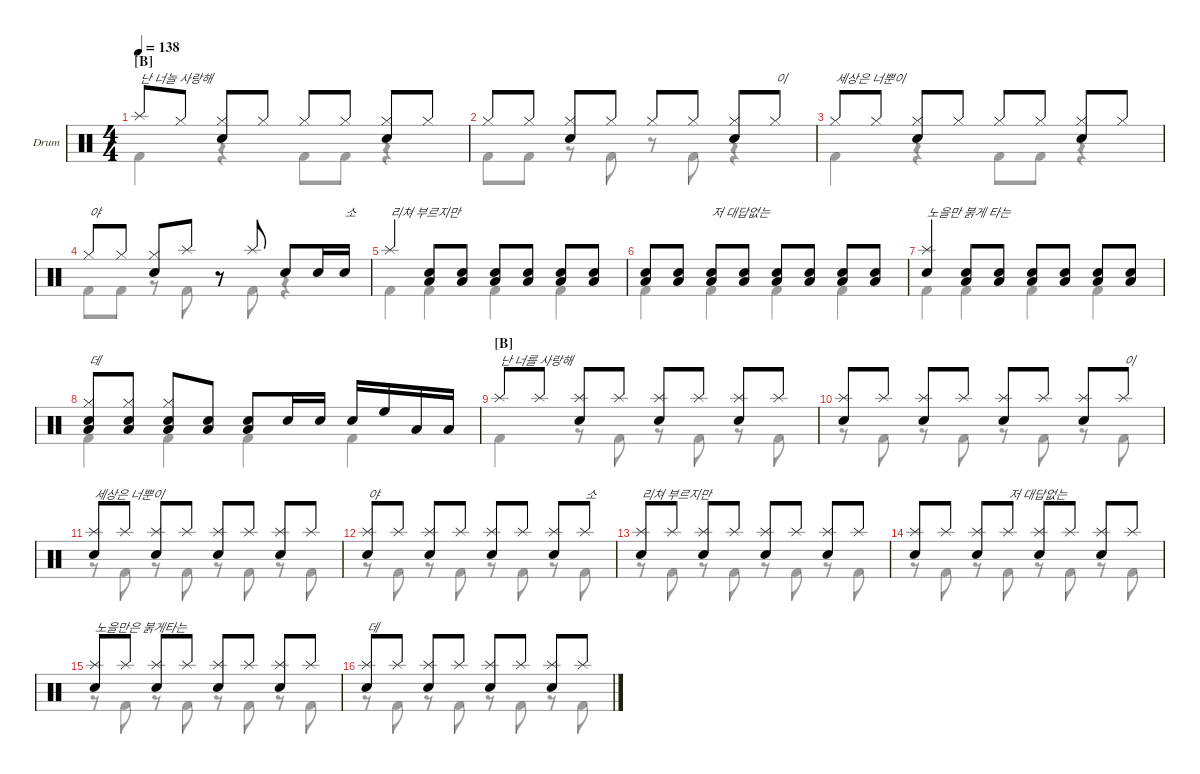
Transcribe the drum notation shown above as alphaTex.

\defaultSystemsLayout 4
\hideDynamics
\bracketExtendMode nobrackets
\firstSystemTrackNameOrientation horizontal
\track ("Drumkit" "Drum") {instrument percussion}
\staff {score}
\articulation defaults
\voice
\ts (4 4)
\section ("B" "")
\tempo 138
\clef neutral
\ks c "Splash (hit)".8{txt "난 너늘 사랑해" dy mf beam Up} "Hi-Hat (closed)".8{beam Up}
("Hi-Hat (closed)" "Snare (hit) 2").8{beam Up} "Hi-Hat (closed)".8{beam Up} "Hi-Hat (closed)".8{beam Up} "Hi-Hat (closed)".8{beam Up} ("Hi-Hat (closed)" "Snare (hit) 2").8{beam Up} "Hi-Hat (closed)".8{beam Up} |
"Hi-Hat (closed)".8{beam Up} "Hi-Hat (closed)".8{beam Up} ("Hi-Hat (closed)" "Snare (hit) 2").8{beam Up} "Hi-Hat (closed)".8{beam Up} "Hi-Hat (closed)".8{beam Up} "Hi-Hat (closed)".8{beam Up} ("Hi-Hat (closed)" "Snare (hit) 2").8{beam Up} "Hi-Hat (closed)".8{txt "이" beam Up} |
"Hi-Hat (closed)".8{txt "세상은 너뿐이" beam Up} "Hi-Hat (closed)".8{beam Up} ("Hi-Hat (closed)" "Snare (hit) 2").8{beam Up} "Hi-Hat (closed)".8{beam Up} "Hi-Hat (closed)".8{beam Up} "Hi-Hat (closed)".8{beam Up} ("Hi-Hat (closed)" "Snare (hit) 2").8{beam Up} "Hi-Hat (closed)".8{beam Up} |
"Hi-Hat (closed)".8{txt "야" beam Up} "Hi-Hat (closed)".8{beam Up} ("Hi-Hat (closed)" "Snare (hit) 2").8{beam Up} "Splash (hit)".8{beam Up} r.8{beam Up} "Splash (hit)".8{beam Up} "Snare (hit) 2".8{beam Up} "Snare (hit) 2".16{beam Up} "Snare (hit) 2".16{txt "소" beam Up} |
"Splash (hit)".4{txt "리쳐 부르지만" beam Up} ("Snare (hit) 2" "Low Tom (hit)").8{beam Up} ("Snare (hit) 2" "Low Tom (hit)").8{beam Up} ("Snare (hit) 2" "Low Tom (hit)").8{beam Up} ("Snare (hit) 2" "Low Tom (hit)").8{beam Up} ("Snare (hit) 2" "Low Tom (hit)").8{beam Up} ("Snare (hit) 2" "Low Tom (hit)").8{beam Up} |
("Low Tom (hit)" "Snare (hit) 2").8{beam Up} ("Low Tom (hit)" "Snare (hit) 2").8{beam Up} ("Snare (hit) 2" "Low Tom (hit)").8{txt "저 대답없는" beam Up} ("Low Tom (hit)" "Snare (hit) 2").8{beam Up} ("Low Tom (hit)" "Snare (hit) 2").8{beam Up} ("Snare (hit) 2" "Low Tom (hit)").8{beam Up} ("Snare (hit) 2" "Low Tom (hit)").8{beam Up} ("Snare (hit) 2" "Low Tom (hit)").8{beam Up} |
("Splash (hit)" "Snare (hit) 2").4{txt "노을만 붉게 타는" beam Up} ("Snare (hit) 2" "Low Tom (hit)").8{beam Up} ("Snare (hit) 2" "Low Tom (hit)").8{beam Up} ("Snare (hit) 2" "Low Tom (hit)").8{beam Up} ("Snare (hit) 2" "Low Tom (hit)").8{beam Up} ("Snare (hit) 2" "Low Tom (hit)").8{beam Up} ("Snare (hit) 2" "Low Tom (hit)").8{beam Up} |
("Hi-Hat (closed)" "Snare (hit) 2" "Low Tom (hit)").8{txt "데" beam Up} ("Hi-Hat (closed)" "Snare (hit) 2" "Low Tom (hit)").8{beam Up} ("Hi-Hat (closed)" "Snare (hit) 2" "Low Tom (hit)").8{beam Up} ("Snare (hit) 2" "Low Tom (hit)").8{beam Up} ("Snare (hit) 2" "Low Tom (hit)").8{beam Up} "Snare (hit) 2".16{beam Up} "Snare (hit) 2".16{beam Up} "Snare (hit) 2".16{beam Up} "High Floor Tom (hit)".16{beam Up} "Low Tom (hit)".16{beam Up} "Low Tom (hit)".16{beam Up} |
\section ("B" "")
"Splash (hit)".8{txt "난 너를 사랑해" beam Up} "Splash (hit)".8{beam Up} ("Splash (hit)" "Snare (hit) 2").8{beam Up} "Splash (hit)".8{beam Up} ("Splash (hit)" "Snare (hit) 2").8{beam Up} "Splash (hit)".8{beam Up} ("Splash (hit)" "Snare (hit) 2").8{beam Up} "Splash (hit)".8{beam Up} |
("Splash (hit)" "Snare (hit) 2").8{beam Up} "Splash (hit)".8{beam Up} ("Splash (hit)" "Snare (hit) 2").8{beam Up} "Splash (hit)".8{beam Up} ("Splash (hit)" "Snare (hit) 2").8{beam Up} "Splash (hit)".8{beam Up} ("Splash (hit)" "Snare (hit) 2").8{beam Up} "Splash (hit)".8{txt "이" beam Up} |
("Splash (hit)" "Snare (hit) 2").8{txt "세상은 너뿐이" beam Up} "Splash (hit)".8{beam Up} ("Splash (hit)" "Snare (hit) 2").8{beam Up} "Splash (hit)".8{beam Up} ("Splash (hit)" "Snare (hit) 2").8{beam Up} "Splash (hit)".8{beam Up} ("Splash (hit)" "Snare (hit) 2").8{beam Up} "Splash (hit)".8{beam Up} |
("Splash (hit)" "Snare (hit) 2").8{txt "야" beam Up} "Splash (hit)".8{beam Up} ("Splash (hit)" "Snare (hit) 2").8{beam Up} "Splash (hit)".8{beam Up} ("Splash (hit)" "Snare (hit) 2").8{beam Up} "Splash (hit)".8{beam Up} ("Splash (hit)" "Snare (hit) 2").8{beam Up} "Splash (hit)".8{txt "소" beam Up} |
("Splash (hit)" "Snare (hit) 2").8{txt "리쳐 부르지만" beam Up} "Splash (hit)".8{beam Up} ("Splash (hit)" "Snare (hit) 2").8{beam Up} "Splash (hit)".8{beam Up} ("Splash (hit)" "Snare (hit) 2").8{beam Up} "Splash (hit)".8{beam Up} ("Splash (hit)" "Snare (hit) 2").8{beam Up} "Splash (hit)".8{beam Up} |
("Splash (hit)" "Snare (hit) 2").8{beam Up} "Splash (hit)".8{beam Up} ("Splash (hit)" "Snare (hit) 2").8{beam Up} "Splash (hit)".8{txt "저 대답없는" beam Up} ("Splash (hit)" "Snare (hit) 2").8{beam Up} "Splash (hit)".8{beam Up} ("Splash (hit)" "Snare (hit) 2").8{beam Up} "Splash (hit)".8{beam Up} |
("Splash (hit)" "Snare (hit) 2").8{txt "노을만은 붉게타는" beam Up} "Splash (hit)".8{beam Up} ("Splash (hit)" "Snare (hit) 2").8{beam Up} "Splash (hit)".8{beam Up} ("Splash (hit)" "Snare (hit) 2").8{beam Up} "Splash (hit)".8{beam Up} ("Splash (hit)" "Snare (hit) 2").8{beam Up} "Splash (hit)".8{beam Up} |
("Splash (hit)" "Snare (hit) 2").8{txt "데" beam Up} "Splash (hit)".8{beam Up} ("Splash (hit)" "Snare (hit) 2").8{beam Up} "Splash (hit)".8{beam Up} ("Splash (hit)" "Snare (hit) 2").8{beam Up} "Splash (hit)".8{beam Up} ("Splash (hit)" "Snare (hit) 2").8{beam Up} "Splash (hit)".8{beam Up}
\voice
\clef neutral
\ottava regular
\simile none
\ks c
|
|
|
|
|
|
|
|
|
|
|
|
|
|
|
\voice
\clef neutral
\ottava regular
\simile none
\ks c "Kick (hit) 2".4{dy mf beam Down}
r.4{beam Down} "Kick (hit) 2".8{beam Down} "Kick (hit) 2".8{beam Down} r.4{beam Down} |
"Kick (hit) 2".8{beam Down} "Kick (hit) 2".8{beam Down} r.8{beam Down} "Kick (hit) 2".8{beam Down} r.8{beam Down} "Kick (hit) 2".8{beam Down} r.4{beam Down} |
"Kick (hit) 2".4{beam Down} r.4{beam Down} "Kick (hit) 2".8{beam Down} "Kick (hit) 2".8{beam Down} r.4{beam Down} |
"Kick (hit) 2".8{beam Down} "Kick (hit) 2".8{beam Down} r.8{beam Down} "Kick (hit) 2".8{beam Down} r.8{beam Down} "Kick (hit) 2".8{beam Down} r.4{beam Down} |
"Kick (hit) 2".4{beam Down} "Kick (hit) 2".4{beam Down} "Kick (hit) 2".4{beam Down} "Kick (hit) 2".4{beam Down} |
"Kick (hit) 2".4{beam Down} "Kick (hit) 2".4{beam Down} "Kick (hit) 2".4{beam Down} "Kick (hit) 2".4{beam Down} |
"Kick (hit) 2".4{beam Down} "Kick (hit) 2".4{beam Down} "Kick (hit) 2".4{beam Down} "Kick (hit) 2".4{beam Down} |
"Kick (hit) 2".4{beam Down} "Kick (hit) 2".4{beam Down} "Kick (hit) 2".4{beam Down} "Kick (hit) 2".4{beam Down} |
"Kick (hit) 2".4{beam Down} r.8{beam Down} "Kick (hit) 2".8{beam Down} r.8{beam Down} "Kick (hit) 2".8{beam Down} r.8{beam Down} "Kick (hit) 2".8{beam Down} |
r.8{beam Down} "Kick (hit) 2".8{beam Down} r.8{beam Down} "Kick (hit) 2".8{beam Down} r.8{beam Down} "Kick (hit) 2".8{beam Down} r.8{beam Down} "Kick (hit) 2".8{beam Down} |
r.8{beam Down} "Kick (hit) 2".8{beam Down} r.8{beam Down} "Kick (hit) 2".8{beam Down} r.8{beam Down} "Kick (hit) 2".8{beam Down} r.8{beam Down} "Kick (hit) 2".8{beam Down} |
r.8{beam Down} "Kick (hit) 2".8{beam Down} r.8{beam Down} "Kick (hit) 2".8{beam Down} r.8{beam Down} "Kick (hit) 2".8{beam Down} r.8{beam Down} "Kick (hit) 2".8{beam Down} |
r.8{beam Down} "Kick (hit) 2".8{beam Down} r.8{beam Down} "Kick (hit) 2".8{beam Down} r.8{beam Down} "Kick (hit) 2".8{beam Down} r.8{beam Down} "Kick (hit) 2".8{beam Down} |
r.8{beam Down} "Kick (hit) 2".8{beam Down} r.8{beam Down} "Kick (hit) 2".8{beam Down} r.8{beam Down} "Kick (hit) 2".8{beam Down} r.8{beam Down} "Kick (hit) 2".8{beam Down} |
r.8{beam Down} "Kick (hit) 2".8{beam Down} r.8{beam Down} "Kick (hit) 2".8{beam Down} r.8{beam Down} "Kick (hit) 2".8{beam Down} r.8{beam Down} "Kick (hit) 2".8{beam Down} |
r.8{beam Down} "Kick (hit) 2".8{beam Down} r.8{beam Down} "Kick (hit) 2".8{beam Down} r.8{beam Down} "Kick (hit) 2".8{beam Down} r.8{beam Down} "Kick (hit) 2".8{beam Down}
